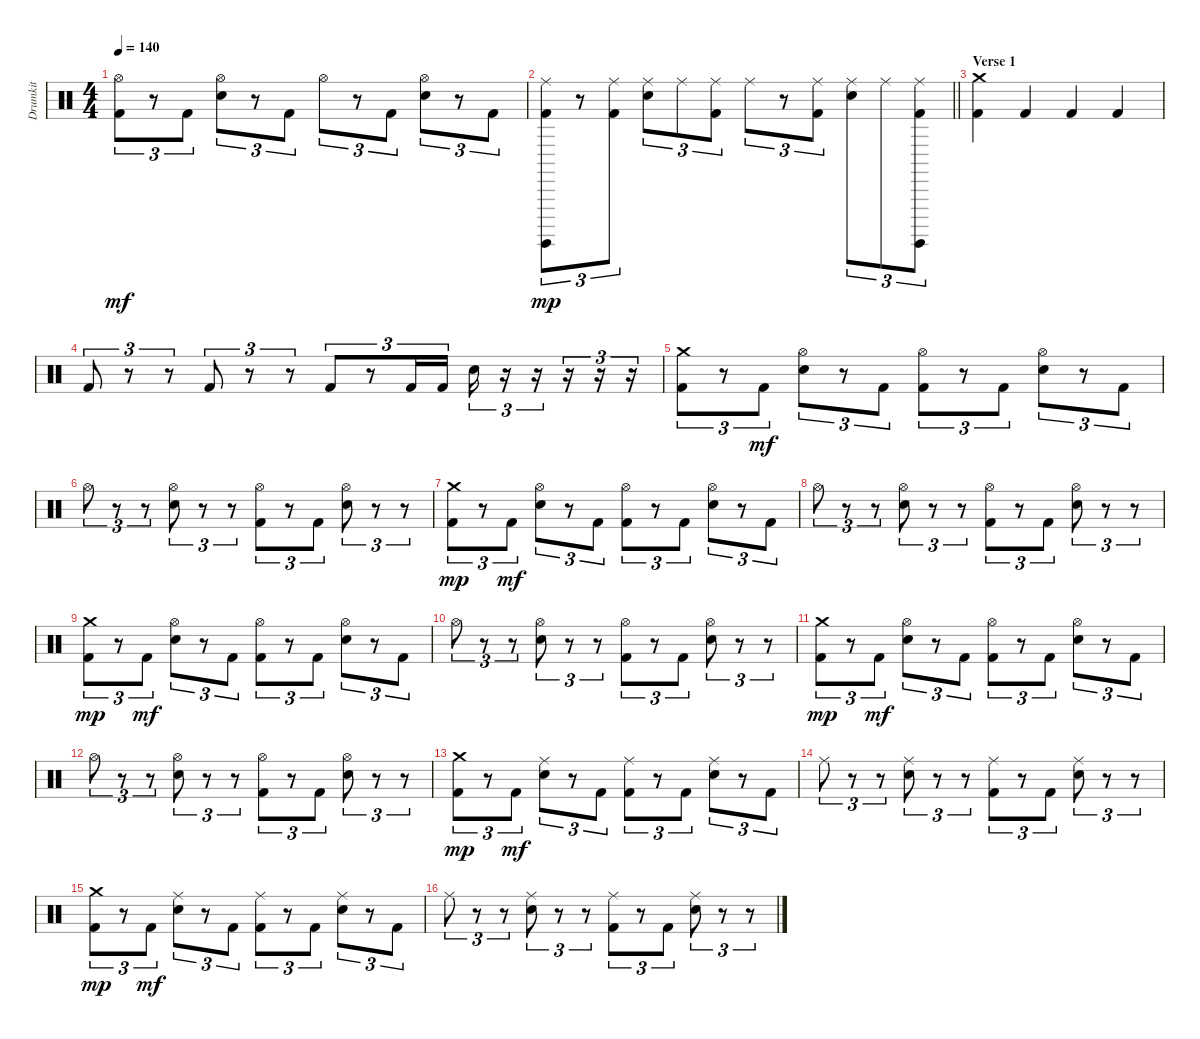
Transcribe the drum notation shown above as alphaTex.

\track ("Drumkit" "Drumkit") {instrument percussion}
\staff {score}
\articulation defaults
\ts (4 4)
\tempo 140
\clef neutral
\ks c
("Kick (hit) 2" "Hi-Hat (open)").8{tu (3 2) dy mf} r.8{tu (3 2)} "Kick (hit) 2".8{tu (3 2)} ("Snare (hit) 2" "Hi-Hat (open)").8{tu (3 2)} r.8{tu (3 2)} "Kick (hit) 2".8{tu (3 2)} "Hi-Hat (open)".8{tu (3 2)} r.8{tu (3 2)} "Kick (hit) 2".8{tu (3 2)} ("Snare (hit) 2" "Hi-Hat (open)").8{tu (3 2)} r.8{tu (3 2)} "Kick (hit) 2".8{tu (3 2)} |
\barLineRight lightlight
("Kick (hit) 2" "Surdo (hit)" "Ride (middle)").8{tu (3 2) dy mp} r.8{tu (3 2)} ("Kick (hit) 2" "Ride (middle)").8{tu (3 2)} ("Snare (hit) 2" "Ride (middle)").8{tu (3 2)} "Ride (middle)".8{tu (3 2)} ("Kick (hit) 2" "Ride (middle)").8{tu (3 2)} "Ride (middle)".8{tu (3 2)} r.8{tu (3 2)} ("Kick (hit) 2" "Ride (middle)").8{tu (3 2)} ("Snare (hit) 2" "Ride (middle)").8{tu (3 2)} "Ride (middle)".8{tu (3 2)} ("Kick (hit) 2" "Surdo (hit)" "Ride (middle)").8{tu (3 2)} |
\section ("" "Verse 1")
("Kick (hit) 2" "Crash medium (hit)").4 "Kick (hit) 2".4 "Kick (hit) 2".4 "Kick (hit) 2".4 |
"Kick (hit) 2".8{tu (3 2)} r.8{tu (3 2)} r.8{tu (3 2)} "Kick (hit) 2".8{tu (3 2)} r.8{tu (3 2)} r.8{tu (3 2)} "Kick (hit) 2".8{tu (3 2)} r.8{tu (3 2)} "Kick (hit) 2".16{tu (3 2)} "Kick (hit) 2".16{tu (3 2)} "Snare (hit) 2".16{tu (3 2)} r.16{tu (3 2)} r.16{tu (3 2)} r.16{tu (3 2)} r.16{tu (3 2)} r.16{tu (3 2)} |
("Kick (hit) 2" "Crash medium (hit)").8{tu (3 2)} r.8{tu (3 2)} "Kick (hit) 2".8{tu (3 2) dy mf} ("Snare (hit) 2" "Hi-Hat (open)").8{tu (3 2)} r.8{tu (3 2)} "Kick (hit) 2".8{tu (3 2)} ("Hi-Hat (open)" "Kick (hit) 2").8{tu (3 2)} r.8{tu (3 2)} "Kick (hit) 2".8{tu (3 2)} ("Snare (hit) 2" "Hi-Hat (open)").8{tu (3 2)} r.8{tu (3 2)} "Kick (hit) 2".8{tu (3 2)} |
"Hi-Hat (open)".8{tu (3 2)} r.8{tu (3 2)} r.8{tu (3 2)} ("Snare (hit) 2" "Hi-Hat (open)").8{tu (3 2)} r.8{tu (3 2)} r.8{tu (3 2)} ("Kick (hit) 2" "Hi-Hat (open)").8{tu (3 2)} r.8{tu (3 2)} "Kick (hit) 2".8{tu (3 2)} ("Snare (hit) 2" "Hi-Hat (open)").8{tu (3 2)} r.8{tu (3 2)} r.8{tu (3 2)} |
("Kick (hit) 2" "Crash medium (hit)").8{tu (3 2) dy mp} r.8{tu (3 2)} "Kick (hit) 2".8{tu (3 2) dy mf} ("Snare (hit) 2" "Hi-Hat (open)").8{tu (3 2)} r.8{tu (3 2)} "Kick (hit) 2".8{tu (3 2)} ("Hi-Hat (open)" "Kick (hit) 2").8{tu (3 2)} r.8{tu (3 2)} "Kick (hit) 2".8{tu (3 2)} ("Snare (hit) 2" "Hi-Hat (open)").8{tu (3 2)} r.8{tu (3 2)} "Kick (hit) 2".8{tu (3 2)} |
"Hi-Hat (open)".8{tu (3 2)} r.8{tu (3 2)} r.8{tu (3 2)} ("Snare (hit) 2" "Hi-Hat (open)").8{tu (3 2)} r.8{tu (3 2)} r.8{tu (3 2)} ("Kick (hit) 2" "Hi-Hat (open)").8{tu (3 2)} r.8{tu (3 2)} "Kick (hit) 2".8{tu (3 2)} ("Snare (hit) 2" "Hi-Hat (open)").8{tu (3 2)} r.8{tu (3 2)} r.8{tu (3 2)} |
("Kick (hit) 2" "Crash medium (hit)").8{tu (3 2) dy mp} r.8{tu (3 2)} "Kick (hit) 2".8{tu (3 2) dy mf} ("Snare (hit) 2" "Hi-Hat (open)").8{tu (3 2)} r.8{tu (3 2)} "Kick (hit) 2".8{tu (3 2)} ("Hi-Hat (open)" "Kick (hit) 2").8{tu (3 2)} r.8{tu (3 2)} "Kick (hit) 2".8{tu (3 2)} ("Snare (hit) 2" "Hi-Hat (open)").8{tu (3 2)} r.8{tu (3 2)} "Kick (hit) 2".8{tu (3 2)} |
"Hi-Hat (open)".8{tu (3 2)} r.8{tu (3 2)} r.8{tu (3 2)} ("Snare (hit) 2" "Hi-Hat (open)").8{tu (3 2)} r.8{tu (3 2)} r.8{tu (3 2)} ("Kick (hit) 2" "Hi-Hat (open)").8{tu (3 2)} r.8{tu (3 2)} "Kick (hit) 2".8{tu (3 2)} ("Snare (hit) 2" "Hi-Hat (open)").8{tu (3 2)} r.8{tu (3 2)} r.8{tu (3 2)} |
("Kick (hit) 2" "Crash medium (hit)").8{tu (3 2) dy mp} r.8{tu (3 2)} "Kick (hit) 2".8{tu (3 2) dy mf} ("Snare (hit) 2" "Hi-Hat (open)").8{tu (3 2)} r.8{tu (3 2)} "Kick (hit) 2".8{tu (3 2)} ("Hi-Hat (open)" "Kick (hit) 2").8{tu (3 2)} r.8{tu (3 2)} "Kick (hit) 2".8{tu (3 2)} ("Snare (hit) 2" "Hi-Hat (open)").8{tu (3 2)} r.8{tu (3 2)} "Kick (hit) 2".8{tu (3 2)} |
"Hi-Hat (open)".8{tu (3 2)} r.8{tu (3 2)} r.8{tu (3 2)} ("Snare (hit) 2" "Hi-Hat (open)").8{tu (3 2)} r.8{tu (3 2)} r.8{tu (3 2)} ("Kick (hit) 2" "Hi-Hat (open)").8{tu (3 2)} r.8{tu (3 2)} "Kick (hit) 2".8{tu (3 2)} ("Snare (hit) 2" "Hi-Hat (open)").8{tu (3 2)} r.8{tu (3 2)} r.8{tu (3 2)} |
("Kick (hit) 2" "Crash medium (hit)").8{tu (3 2) dy mp} r.8{tu (3 2)} "Kick (hit) 2".8{tu (3 2) dy mf} ("Snare (hit) 2" "Ride (middle)").8{tu (3 2)} r.8{tu (3 2)} "Kick (hit) 2".8{tu (3 2)} ("Ride (middle)" "Kick (hit) 2").8{tu (3 2)} r.8{tu (3 2)} "Kick (hit) 2".8{tu (3 2)} ("Snare (hit) 2" "Ride (middle)").8{tu (3 2)} r.8{tu (3 2)} "Kick (hit) 2".8{tu (3 2)} |
"Ride (middle)".8{tu (3 2)} r.8{tu (3 2)} r.8{tu (3 2)} ("Snare (hit) 2" "Ride (middle)").8{tu (3 2)} r.8{tu (3 2)} r.8{tu (3 2)} ("Kick (hit) 2" "Ride (middle)").8{tu (3 2)} r.8{tu (3 2)} "Kick (hit) 2".8{tu (3 2)} ("Snare (hit) 2" "Ride (middle)").8{tu (3 2)} r.8{tu (3 2)} r.8{tu (3 2)} |
("Kick (hit) 2" "Crash medium (hit)").8{tu (3 2) dy mp} r.8{tu (3 2)} "Kick (hit) 2".8{tu (3 2) dy mf} ("Snare (hit) 2" "Ride (middle)").8{tu (3 2)} r.8{tu (3 2)} "Kick (hit) 2".8{tu (3 2)} ("Ride (middle)" "Kick (hit) 2").8{tu (3 2)} r.8{tu (3 2)} "Kick (hit) 2".8{tu (3 2)} ("Snare (hit) 2" "Ride (middle)").8{tu (3 2)} r.8{tu (3 2)} "Kick (hit) 2".8{tu (3 2)} |
"Ride (middle)".8{tu (3 2)} r.8{tu (3 2)} r.8{tu (3 2)} ("Snare (hit) 2" "Ride (middle)").8{tu (3 2)} r.8{tu (3 2)} r.8{tu (3 2)} ("Kick (hit) 2" "Ride (middle)").8{tu (3 2)} r.8{tu (3 2)} "Kick (hit) 2".8{tu (3 2)} ("Snare (hit) 2" "Ride (middle)").8{tu (3 2)} r.8{tu (3 2)} r.8{tu (3 2)}
